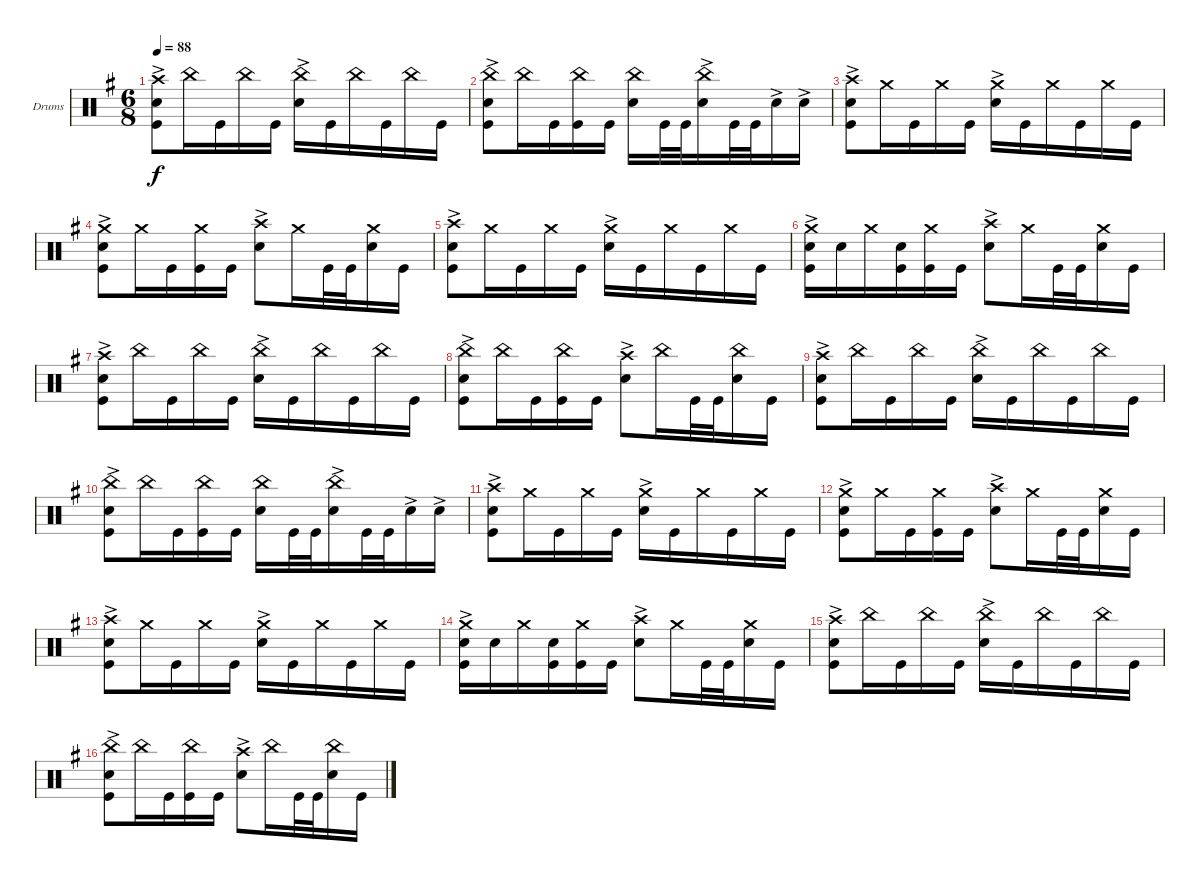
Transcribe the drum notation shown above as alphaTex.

\bracketExtendMode groupsimilarinstruments
\firstSystemTrackNameOrientation horizontal
\otherSystemsTrackNameOrientation horizontal
\track ("Drumkit" "Drums") {instrument percussion}
\staff {score}
\articulation defaults
\ts (6 8)
\tempo 88
\clef neutral
\ks eminor
("Crash high (hit)" "Kick (hit)" "Snare (hit) 2"{ac}).8{dy f} "China (hit)".16 "Kick (hit)".16 "China (hit)".16 "Kick (hit)".16 ("Snare (hit) 2"{ac} "China (hit)").16 "Kick (hit)".16 "China (hit)".16 "Kick (hit)".16 "China (hit)".16 "Kick (hit)".16 |
("Kick (hit)" "Snare (hit) 2"{ac} "China (hit)").8 "China (hit)".16 "Kick (hit)".16 ("Kick (hit)" "China (hit)").16 "Kick (hit)".16 ("Snare (hit) 2" "China (hit)").16 "Kick (hit)".32 "Kick (hit)".32 ("Snare (hit) 2"{ac} "China (hit)").16 "Kick (hit)".32 "Kick (hit)".32 "Snare (hit) 2"{ac}.16 "Snare (hit) 2"{ac}.16 |
("Crash high (hit)" "Kick (hit)" "Snare (hit) 2"{ac}).8 "Crash medium (hit)".16 "Kick (hit)".16 "Crash medium (hit)".16 "Kick (hit)".16 ("Snare (hit) 2"{ac} "Crash medium (hit)").16 "Kick (hit)".16 "Crash medium (hit)".16 "Kick (hit)".16 "Crash medium (hit)".16 "Kick (hit)".16 |
("Kick (hit)" "Crash medium (hit)" "Snare (hit) 2"{ac}).8 "Crash medium (hit)".16 "Kick (hit)".16 ("Kick (hit)" "Crash medium (hit)").16 "Kick (hit)".16 ("Crash high (hit)" "Snare (hit) 2"{ac}).8 "Crash medium (hit)".16 "Kick (hit)".32 "Kick (hit)".32 ("Snare (hit) 2" "Crash medium (hit)").16 "Kick (hit)".16 |
("Crash high (hit)" "Kick (hit)" "Snare (hit) 2"{ac}).8 "Crash medium (hit)".16 "Kick (hit)".16 "Crash medium (hit)".16 "Kick (hit)".16 ("Snare (hit) 2"{ac} "Crash medium (hit)").16 "Kick (hit)".16 "Crash medium (hit)".16 "Kick (hit)".16 "Crash medium (hit)".16 "Kick (hit)".16 |
("Kick (hit)" "Crash medium (hit)" "Snare (hit) 2"{ac}).16 "Snare (hit) 2".16 "Crash medium (hit)".16 ("Kick (hit)" "Snare (hit) 2").16 ("Kick (hit)" "Crash medium (hit)").16 "Kick (hit)".16 ("Crash high (hit)" "Snare (hit) 2"{ac}).8 "Crash medium (hit)".16 "Kick (hit)".32 "Kick (hit)".32 ("Snare (hit) 2" "Crash medium (hit)").16 "Kick (hit)".16 |
("Crash high (hit)" "Kick (hit)" "Snare (hit) 2"{ac}).8 "China (hit)".16 "Kick (hit)".16 "China (hit)".16 "Kick (hit)".16 ("Snare (hit) 2"{ac} "China (hit)").16 "Kick (hit)".16 "China (hit)".16 "Kick (hit)".16 "China (hit)".16 "Kick (hit)".16 |
("Kick (hit)" "Snare (hit) 2"{ac} "China (hit)").8 "China (hit)".16 "Kick (hit)".16 ("Kick (hit)" "China (hit)").16 "Kick (hit)".16 ("Crash high (hit)" "Snare (hit) 2"{ac}).8 "China (hit)".16 "Kick (hit)".32 "Kick (hit)".32 ("Snare (hit) 2" "China (hit)").16 "Kick (hit)".16 |
("Crash high (hit)" "Kick (hit)" "Snare (hit) 2"{ac}).8 "China (hit)".16 "Kick (hit)".16 "China (hit)".16 "Kick (hit)".16 ("Snare (hit) 2"{ac} "China (hit)").16 "Kick (hit)".16 "China (hit)".16 "Kick (hit)".16 "China (hit)".16 "Kick (hit)".16 |
("Kick (hit)" "Snare (hit) 2"{ac} "China (hit)").8 "China (hit)".16 "Kick (hit)".16 ("Kick (hit)" "China (hit)").16 "Kick (hit)".16 ("Snare (hit) 2" "China (hit)").16 "Kick (hit)".32 "Kick (hit)".32 ("Snare (hit) 2"{ac} "China (hit)").16 "Kick (hit)".32 "Kick (hit)".32 "Snare (hit) 2"{ac}.16 "Snare (hit) 2"{ac}.16 |
("Crash high (hit)" "Kick (hit)" "Snare (hit) 2"{ac}).8 "Crash medium (hit)".16 "Kick (hit)".16 "Crash medium (hit)".16 "Kick (hit)".16 ("Snare (hit) 2"{ac} "Crash medium (hit)").16 "Kick (hit)".16 "Crash medium (hit)".16 "Kick (hit)".16 "Crash medium (hit)".16 "Kick (hit)".16 |
("Kick (hit)" "Crash medium (hit)" "Snare (hit) 2"{ac}).8 "Crash medium (hit)".16 "Kick (hit)".16 ("Kick (hit)" "Crash medium (hit)").16 "Kick (hit)".16 ("Crash high (hit)" "Snare (hit) 2"{ac}).8 "Crash medium (hit)".16 "Kick (hit)".32 "Kick (hit)".32 ("Snare (hit) 2" "Crash medium (hit)").16 "Kick (hit)".16 |
("Crash high (hit)" "Kick (hit)" "Snare (hit) 2"{ac}).8 "Crash medium (hit)".16 "Kick (hit)".16 "Crash medium (hit)".16 "Kick (hit)".16 ("Snare (hit) 2"{ac} "Crash medium (hit)").16 "Kick (hit)".16 "Crash medium (hit)".16 "Kick (hit)".16 "Crash medium (hit)".16 "Kick (hit)".16 |
("Kick (hit)" "Crash medium (hit)" "Snare (hit) 2"{ac}).16 "Snare (hit) 2".16 "Crash medium (hit)".16 ("Kick (hit)" "Snare (hit) 2").16 ("Kick (hit)" "Crash medium (hit)").16 "Kick (hit)".16 ("Crash high (hit)" "Snare (hit) 2"{ac}).8 "Crash medium (hit)".16 "Kick (hit)".32 "Kick (hit)".32 ("Snare (hit) 2" "Crash medium (hit)").16 "Kick (hit)".16 |
("Crash high (hit)" "Kick (hit)" "Snare (hit) 2"{ac}).8 "China (hit)".16 "Kick (hit)".16 "China (hit)".16 "Kick (hit)".16 ("Snare (hit) 2"{ac} "China (hit)").16 "Kick (hit)".16 "China (hit)".16 "Kick (hit)".16 "China (hit)".16 "Kick (hit)".16 |
("Kick (hit)" "Snare (hit) 2"{ac} "China (hit)").8 "China (hit)".16 "Kick (hit)".16 ("Kick (hit)" "China (hit)").16 "Kick (hit)".16 ("Crash high (hit)" "Snare (hit) 2"{ac}).8 "China (hit)".16 "Kick (hit)".32 "Kick (hit)".32 ("Snare (hit) 2" "China (hit)").16 "Kick (hit)".16
